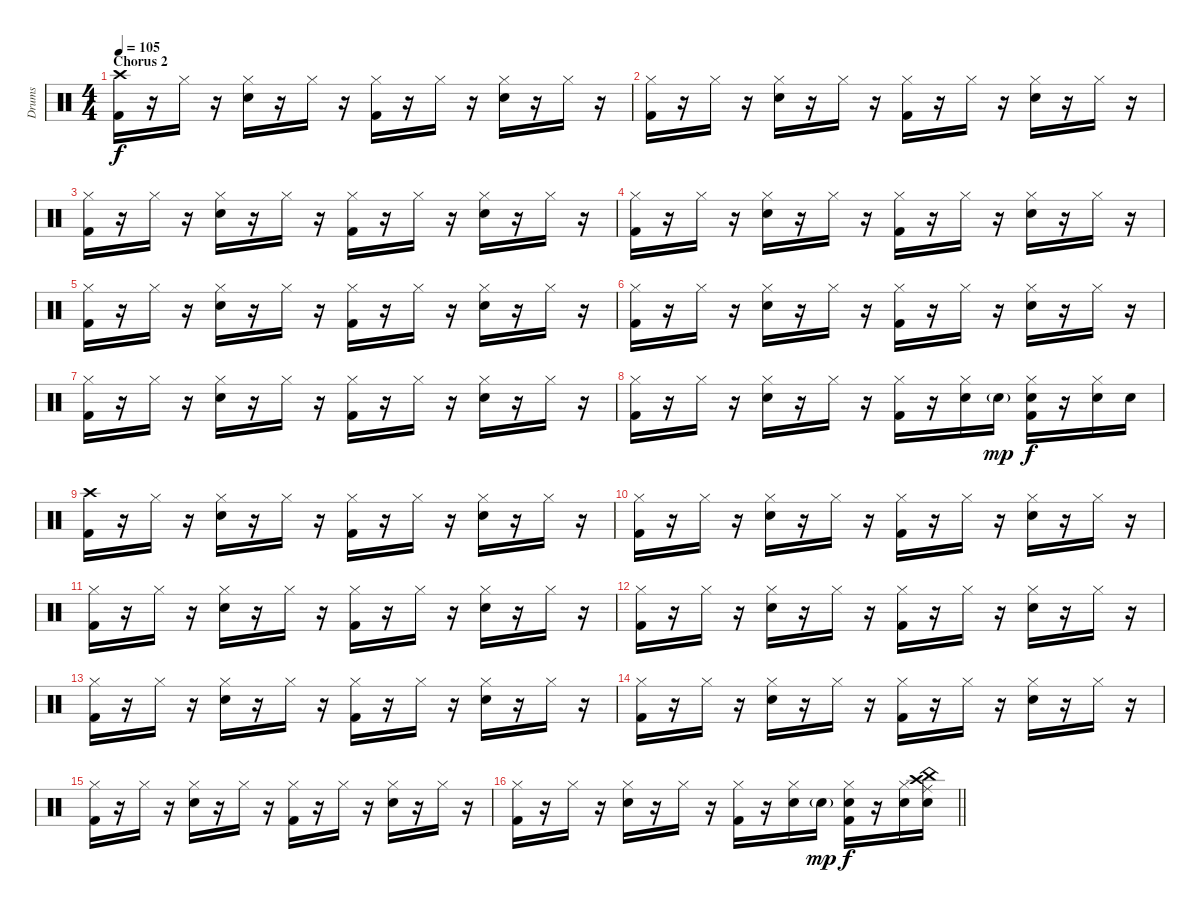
\track ("Drums" "Drums") {instrument percussion}
\staff {score}
\articulation defaults
\ts (4 4)
\section ("" "Chorus 2")
\tempo 105
\clef neutral
\ks c
("Kick (hit) 2" "Crash high (hit)").16{dy f} r.16 "Hi-Hat (closed)".16 r.16 ("Snare (hit) 2" "Hi-Hat (closed)").16 r.16 "Hi-Hat (closed)".16 r.16 ("Kick (hit) 2" "Hi-Hat (closed)").16 r.16 "Hi-Hat (closed)".16 r.16 ("Snare (hit) 2" "Hi-Hat (closed)").16 r.16 "Hi-Hat (closed)".16 r.16 |
("Kick (hit) 2" "Hi-Hat (closed)").16 r.16 "Hi-Hat (closed)".16 r.16 ("Snare (hit) 2" "Hi-Hat (closed)").16 r.16 "Hi-Hat (closed)".16 r.16 ("Kick (hit) 2" "Hi-Hat (closed)").16 r.16 "Hi-Hat (closed)".16 r.16 ("Snare (hit) 2" "Hi-Hat (closed)").16 r.16 "Hi-Hat (closed)".16 r.16 |
("Kick (hit) 2" "Hi-Hat (closed)").16 r.16 "Hi-Hat (closed)".16 r.16 ("Snare (hit) 2" "Hi-Hat (closed)").16 r.16 "Hi-Hat (closed)".16 r.16 ("Kick (hit) 2" "Hi-Hat (closed)").16 r.16 "Hi-Hat (closed)".16 r.16 ("Snare (hit) 2" "Hi-Hat (closed)").16 r.16 "Hi-Hat (closed)".16 r.16 |
("Kick (hit) 2" "Hi-Hat (closed)").16 r.16 "Hi-Hat (closed)".16 r.16 ("Snare (hit) 2" "Hi-Hat (closed)").16 r.16 "Hi-Hat (closed)".16 r.16 ("Kick (hit) 2" "Hi-Hat (closed)").16 r.16 "Hi-Hat (closed)".16 r.16 ("Snare (hit) 2" "Hi-Hat (closed)").16 r.16 "Hi-Hat (closed)".16 r.16 |
("Kick (hit) 2" "Hi-Hat (closed)").16 r.16 "Hi-Hat (closed)".16 r.16 ("Snare (hit) 2" "Hi-Hat (closed)").16 r.16 "Hi-Hat (closed)".16 r.16 ("Kick (hit) 2" "Hi-Hat (closed)").16 r.16 "Hi-Hat (closed)".16 r.16 ("Snare (hit) 2" "Hi-Hat (closed)").16 r.16 "Hi-Hat (closed)".16 r.16 |
("Kick (hit) 2" "Hi-Hat (closed)").16 r.16 "Hi-Hat (closed)".16 r.16 ("Snare (hit) 2" "Hi-Hat (closed)").16 r.16 "Hi-Hat (closed)".16 r.16 ("Kick (hit) 2" "Hi-Hat (closed)").16 r.16 "Hi-Hat (closed)".16 r.16 ("Snare (hit) 2" "Hi-Hat (closed)").16 r.16 "Hi-Hat (closed)".16 r.16 |
("Kick (hit) 2" "Hi-Hat (closed)").16 r.16 "Hi-Hat (closed)".16 r.16 ("Snare (hit) 2" "Hi-Hat (closed)").16 r.16 "Hi-Hat (closed)".16 r.16 ("Kick (hit) 2" "Hi-Hat (closed)").16 r.16 "Hi-Hat (closed)".16 r.16 ("Snare (hit) 2" "Hi-Hat (closed)").16 r.16 "Hi-Hat (closed)".16 r.16 |
("Kick (hit) 2" "Hi-Hat (closed)").16 r.16 "Hi-Hat (closed)".16 r.16 ("Snare (hit) 2" "Hi-Hat (closed)").16 r.16 "Hi-Hat (closed)".16 r.16 ("Kick (hit) 2" "Hi-Hat (closed)").16 r.16 ("Snare (hit) 2" "Hi-Hat (closed)").16 "Snare (hit) 2"{g}.16{dy mp} ("Kick (hit) 2" "Snare (hit) 2" "Hi-Hat (closed)").16{dy f} r.16 ("Snare (hit) 2" "Hi-Hat (closed)").16 "Snare (hit) 2".16 |
("Kick (hit) 2" "Crash high (hit)").16 r.16 "Hi-Hat (closed)".16 r.16 ("Snare (hit) 2" "Hi-Hat (closed)").16 r.16 "Hi-Hat (closed)".16 r.16 ("Kick (hit) 2" "Hi-Hat (closed)").16 r.16 "Hi-Hat (closed)".16 r.16 ("Snare (hit) 2" "Hi-Hat (closed)").16 r.16 "Hi-Hat (closed)".16 r.16 |
("Kick (hit) 2" "Hi-Hat (closed)").16 r.16 "Hi-Hat (closed)".16 r.16 ("Snare (hit) 2" "Hi-Hat (closed)").16 r.16 "Hi-Hat (closed)".16 r.16 ("Kick (hit) 2" "Hi-Hat (closed)").16 r.16 "Hi-Hat (closed)".16 r.16 ("Snare (hit) 2" "Hi-Hat (closed)").16 r.16 "Hi-Hat (closed)".16 r.16 |
("Kick (hit) 2" "Hi-Hat (closed)").16 r.16 "Hi-Hat (closed)".16 r.16 ("Snare (hit) 2" "Hi-Hat (closed)").16 r.16 "Hi-Hat (closed)".16 r.16 ("Kick (hit) 2" "Hi-Hat (closed)").16 r.16 "Hi-Hat (closed)".16 r.16 ("Snare (hit) 2" "Hi-Hat (closed)").16 r.16 "Hi-Hat (closed)".16 r.16 |
("Kick (hit) 2" "Hi-Hat (closed)").16 r.16 "Hi-Hat (closed)".16 r.16 ("Snare (hit) 2" "Hi-Hat (closed)").16 r.16 "Hi-Hat (closed)".16 r.16 ("Kick (hit) 2" "Hi-Hat (closed)").16 r.16 "Hi-Hat (closed)".16 r.16 ("Snare (hit) 2" "Hi-Hat (closed)").16 r.16 "Hi-Hat (closed)".16 r.16 |
("Kick (hit) 2" "Hi-Hat (closed)").16 r.16 "Hi-Hat (closed)".16 r.16 ("Snare (hit) 2" "Hi-Hat (closed)").16 r.16 "Hi-Hat (closed)".16 r.16 ("Kick (hit) 2" "Hi-Hat (closed)").16 r.16 "Hi-Hat (closed)".16 r.16 ("Snare (hit) 2" "Hi-Hat (closed)").16 r.16 "Hi-Hat (closed)".16 r.16 |
("Kick (hit) 2" "Hi-Hat (closed)").16 r.16 "Hi-Hat (closed)".16 r.16 ("Snare (hit) 2" "Hi-Hat (closed)").16 r.16 "Hi-Hat (closed)".16 r.16 ("Kick (hit) 2" "Hi-Hat (closed)").16 r.16 "Hi-Hat (closed)".16 r.16 ("Snare (hit) 2" "Hi-Hat (closed)").16 r.16 "Hi-Hat (closed)".16 r.16 |
("Kick (hit) 2" "Hi-Hat (closed)").16 r.16 "Hi-Hat (closed)".16 r.16 ("Snare (hit) 2" "Hi-Hat (closed)").16 r.16 "Hi-Hat (closed)".16 r.16 ("Kick (hit) 2" "Hi-Hat (closed)").16 r.16 "Hi-Hat (closed)".16 r.16 ("Snare (hit) 2" "Hi-Hat (closed)").16 r.16 "Hi-Hat (closed)".16 r.16 |
\barLineRight lightlight
("Kick (hit) 2" "Hi-Hat (closed)").16 r.16 "Hi-Hat (closed)".16 r.16 ("Snare (hit) 2" "Hi-Hat (closed)").16 r.16 "Hi-Hat (closed)".16 r.16 ("Kick (hit) 2" "Hi-Hat (closed)").16 r.16 ("Snare (hit) 2" "Hi-Hat (closed)").16 "Snare (hit) 2"{g}.16{dy mp} ("Kick (hit) 2" "Snare (hit) 2" "Hi-Hat (closed)").16{dy f} r.16 ("Snare (hit) 2" "Hi-Hat (closed)").16 ("Crash high (hit)" "Snare (hit) 2" "Ride (middle)" "China (hit)").16
